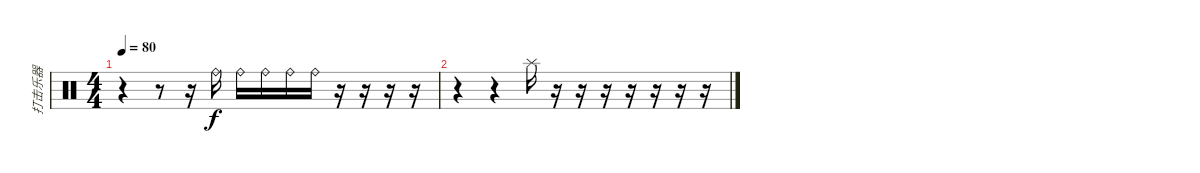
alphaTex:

\track ("打击乐器" "打击乐器") {instrument percussion}
\staff {score}
\articulation defaults
\ts (4 4)
\tempo 80
\clef neutral
\ks c
r.4{dy f} r.8 r.16 "Ride (bell)".16 "Ride (bell)".16 "Ride (bell)".16 "Ride (bell)".16 "Ride (bell)".16 r.16 r.16 r.16 r.16 |
r.4 r.4 "Splash (hit)".16 r.16 r.16 r.16 r.16 r.16 r.16 r.16
